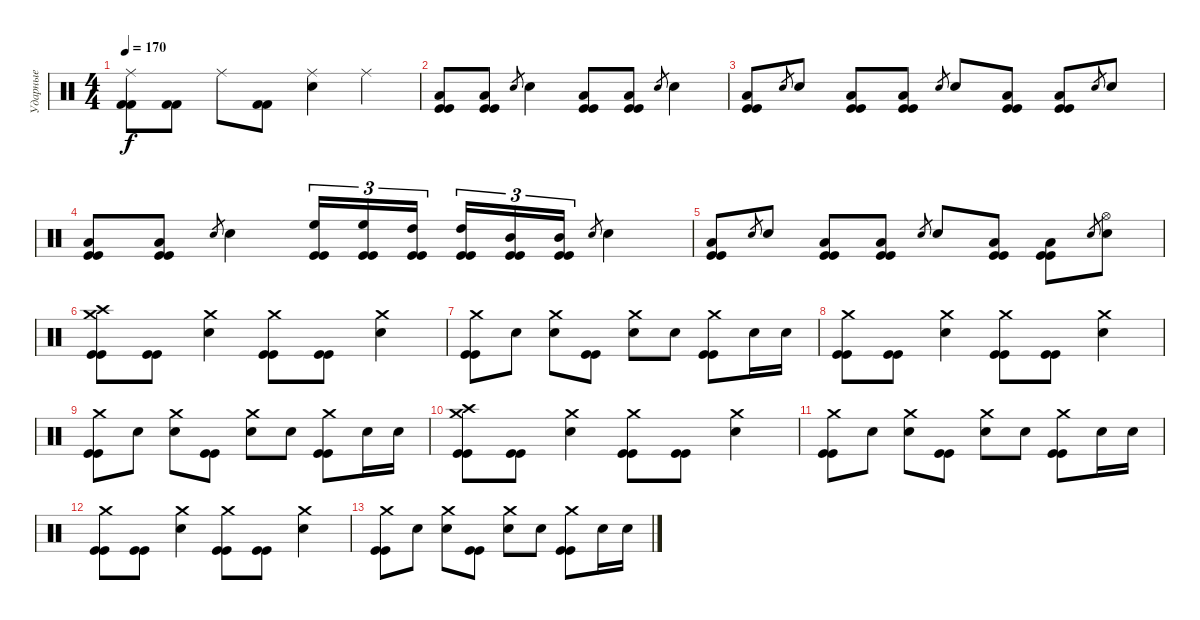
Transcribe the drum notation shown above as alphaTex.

\track ("Ударные" "Ударные") {instrument percussion}
\staff {score}
\articulation defaults
\ts (4 4)
\tempo 170
\clef neutral
\ks c
("Ride (middle)" "Kick (hit) 2" "Kick (hit) 2").8{dy f} ("Kick (hit) 2" "Kick (hit) 2").8 "Ride (middle)".8 ("Kick (hit) 2" "Kick (hit) 2").8 ("Ride (middle)" "Electric Snare (hit)").4 "Ride (middle)".4 |
("Low Tom (hit)" "Kick (hit)" "Kick (hit)").8 ("Low Tom (hit)" "Kick (hit)" "Kick (hit)").8 "Electric Snare (hit)".8{gr} "Electric Snare (hit)".4 ("Low Tom (hit)" "Kick (hit)" "Kick (hit)").8 ("Low Tom (hit)" "Kick (hit)" "Kick (hit)").8 "Electric Snare (hit)".8{gr} "Electric Snare (hit)".4 |
("Low Tom (hit)" "Kick (hit)" "Kick (hit)").8 "Electric Snare (hit)".8{gr} "Electric Snare (hit)".8 ("Low Tom (hit)" "Kick (hit)" "Kick (hit)").8 ("Low Tom (hit)" "Kick (hit)" "Kick (hit)").8 "Electric Snare (hit)".8{gr} "Electric Snare (hit)".8 ("Low Tom (hit)" "Kick (hit)" "Kick (hit)").8 ("Low Tom (hit)" "Kick (hit)" "Kick (hit)").8 "Electric Snare (hit)".8{gr} "Electric Snare (hit)".8 |
("Low Tom (hit)" "Kick (hit)" "Kick (hit)").8 ("Low Tom (hit)" "Kick (hit)" "Kick (hit)").8 "Electric Snare (hit)".8{gr} "Electric Snare (hit)".4 ("High Floor Tom (hit)" "Kick (hit)" "Kick (hit)").16{tu (3 2)} ("High Floor Tom (hit)" "Kick (hit)" "Kick (hit)").16{tu (3 2)} ("High Tom (hit)" "Kick (hit)" "Kick (hit)").16{tu (3 2) beam splitsecondary} ("High Tom (hit)" "Kick (hit)" "Kick (hit)").16{tu (3 2)} ("Mid Tom (hit)" "Kick (hit)" "Kick (hit)").16{tu (3 2)} ("Mid Tom (hit)" "Kick (hit)" "Kick (hit)").16{tu (3 2)} "Electric Snare (hit)".8{gr} "Electric Snare (hit)".4 |
("Low Tom (hit)" "Kick (hit)" "Kick (hit)").8 "Electric Snare (hit)".8{gr} "Electric Snare (hit)".8 ("Low Tom (hit)" "Kick (hit)" "Kick (hit)").8 ("Low Tom (hit)" "Kick (hit)" "Kick (hit)").8 "Electric Snare (hit)".8{gr} "Electric Snare (hit)".8 ("Low Tom (hit)" "Kick (hit)" "Kick (hit)").8 ("Low Tom (hit)" "Kick (hit)" "Kick (hit)").8 "Electric Snare (hit)".8{gr} ("Hi-Hat (open)" "Electric Snare (hit)").8 |
("Crash high (hit)" "Crash medium (hit)" "Kick (hit)" "Kick (hit)").8 ("Kick (hit)" "Kick (hit)").8 ("Crash medium (hit)" "Electric Snare (hit)").4 ("Crash medium (hit)" "Kick (hit)" "Kick (hit)").8 ("Kick (hit)" "Kick (hit)").8 ("Crash medium (hit)" "Electric Snare (hit)").4 |
("Crash medium (hit)" "Kick (hit)" "Kick (hit)").8 "Electric Snare (hit)".8 ("Crash medium (hit)" "Electric Snare (hit)").8 ("Kick (hit)" "Kick (hit)").8 ("Crash medium (hit)" "Electric Snare (hit)").8 "Electric Snare (hit)".8 ("Crash medium (hit)" "Kick (hit)" "Kick (hit)").8 "Electric Snare (hit)".16 "Electric Snare (hit)".16 |
("Crash medium (hit)" "Kick (hit)" "Kick (hit)").8 ("Kick (hit)" "Kick (hit)").8 ("Crash medium (hit)" "Electric Snare (hit)").4 ("Crash medium (hit)" "Kick (hit)" "Kick (hit)").8 ("Kick (hit)" "Kick (hit)").8 ("Crash medium (hit)" "Electric Snare (hit)").4 |
("Crash medium (hit)" "Kick (hit)" "Kick (hit)").8 "Electric Snare (hit)".8 ("Crash medium (hit)" "Electric Snare (hit)").8 ("Kick (hit)" "Kick (hit)").8 ("Crash medium (hit)" "Electric Snare (hit)").8 "Electric Snare (hit)".8 ("Crash medium (hit)" "Kick (hit)" "Kick (hit)").8 "Electric Snare (hit)".16 "Electric Snare (hit)".16 |
("Crash high (hit)" "Crash medium (hit)" "Kick (hit)" "Kick (hit)").8 ("Kick (hit)" "Kick (hit)").8 ("Crash medium (hit)" "Electric Snare (hit)").4 ("Crash medium (hit)" "Kick (hit)" "Kick (hit)").8 ("Kick (hit)" "Kick (hit)").8 ("Crash medium (hit)" "Electric Snare (hit)").4 |
("Crash medium (hit)" "Kick (hit)" "Kick (hit)").8 "Electric Snare (hit)".8 ("Crash medium (hit)" "Electric Snare (hit)").8 ("Kick (hit)" "Kick (hit)").8 ("Crash medium (hit)" "Electric Snare (hit)").8 "Electric Snare (hit)".8 ("Crash medium (hit)" "Kick (hit)" "Kick (hit)").8 "Electric Snare (hit)".16 "Electric Snare (hit)".16 |
("Crash medium (hit)" "Kick (hit)" "Kick (hit)").8 ("Kick (hit)" "Kick (hit)").8 ("Crash medium (hit)" "Electric Snare (hit)").4 ("Crash medium (hit)" "Kick (hit)" "Kick (hit)").8 ("Kick (hit)" "Kick (hit)").8 ("Crash medium (hit)" "Electric Snare (hit)").4 |
("Crash medium (hit)" "Kick (hit)" "Kick (hit)").8 "Electric Snare (hit)".8 ("Crash medium (hit)" "Electric Snare (hit)").8 ("Kick (hit)" "Kick (hit)").8 ("Crash medium (hit)" "Electric Snare (hit)").8 "Electric Snare (hit)".8 ("Crash medium (hit)" "Kick (hit)" "Kick (hit)").8 "Electric Snare (hit)".16 "Electric Snare (hit)".16
